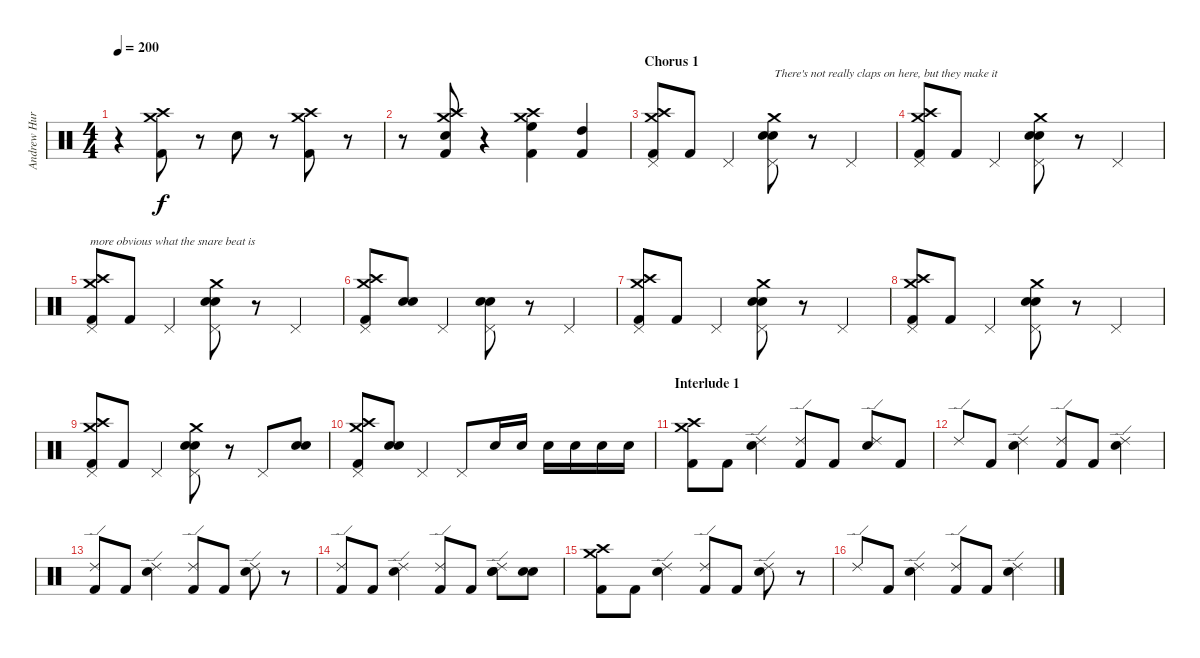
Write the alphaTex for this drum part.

\track ("Andrew Hurley (Drums)" "Andrew Hur") {instrument percussion}
\staff {score}
\articulation defaults
\ts (4 4)
\tempo 200
\clef neutral
\ks c
r.4{dy f} ("Kick (hit) 2" "Crash medium (hit)" "Crash high (hit)").8 r.8 "Electric Snare (hit)".8 r.8 ("Kick (hit) 2" "Crash medium (hit)" "Crash high (hit)").8 r.8 |
r.8 ("Kick (hit) 2" "Electric Snare (hit)" "Crash medium (hit)" "Crash high (hit)").8 r.4 ("Kick (hit) 2" "High Floor Tom (hit)" "Crash medium (hit)" "Crash high (hit)").4 ("Kick (hit) 2" "High Tom (hit)").4 |
\section ("" "Chorus 1")
("Kick (hit) 2" "Pedal Hi-Hat (hit)" "Crash high (hit)" "Crash medium (hit)").8 "Kick (hit) 2".8 "Pedal Hi-Hat (hit)".4 ("Hand Clap (hit)" "Electric Snare (hit)" "Pedal Hi-Hat (hit)" "Crash medium (hit)").8{txt "There's not really claps on here, but they make it"} r.8 "Pedal Hi-Hat (hit)".4 |
("Kick (hit) 2" "Pedal Hi-Hat (hit)" "Crash high (hit)" "Crash medium (hit)").8 "Kick (hit) 2".8 "Pedal Hi-Hat (hit)".4 ("Hand Clap (hit)" "Electric Snare (hit)" "Pedal Hi-Hat (hit)" "Crash medium (hit)").8 r.8 "Pedal Hi-Hat (hit)".4 |
("Kick (hit) 2" "Pedal Hi-Hat (hit)" "Crash high (hit)" "Crash medium (hit)").8{txt "more obvious what the snare beat is"} "Kick (hit) 2".8 "Pedal Hi-Hat (hit)".4 ("Hand Clap (hit)" "Electric Snare (hit)" "Pedal Hi-Hat (hit)" "Crash medium (hit)").8 r.8 "Pedal Hi-Hat (hit)".4 |
("Kick (hit) 2" "Pedal Hi-Hat (hit)" "Crash high (hit)" "Crash medium (hit)").8 ("Hand Clap (hit)" "Electric Snare (hit)").8 "Pedal Hi-Hat (hit)".4 ("Hand Clap (hit)" "Electric Snare (hit)" "Pedal Hi-Hat (hit)").8 r.8 "Pedal Hi-Hat (hit)".4 |
("Kick (hit) 2" "Pedal Hi-Hat (hit)" "Crash high (hit)" "Crash medium (hit)").8 "Kick (hit) 2".8 "Pedal Hi-Hat (hit)".4 ("Hand Clap (hit)" "Electric Snare (hit)" "Pedal Hi-Hat (hit)" "Crash medium (hit)").8 r.8 "Pedal Hi-Hat (hit)".4 |
("Kick (hit) 2" "Pedal Hi-Hat (hit)" "Crash high (hit)" "Crash medium (hit)").8 "Kick (hit) 2".8 "Pedal Hi-Hat (hit)".4 ("Hand Clap (hit)" "Electric Snare (hit)" "Pedal Hi-Hat (hit)" "Crash medium (hit)").8 r.8 "Pedal Hi-Hat (hit)".4 |
("Kick (hit) 2" "Pedal Hi-Hat (hit)" "Crash high (hit)" "Crash medium (hit)").8 "Kick (hit) 2".8 "Pedal Hi-Hat (hit)".4 ("Hand Clap (hit)" "Electric Snare (hit)" "Pedal Hi-Hat (hit)" "Crash medium (hit)").8 r.8 "Pedal Hi-Hat (hit)".8 ("Hand Clap (hit)" "Electric Snare (hit)").8 |
("Kick (hit) 2" "Pedal Hi-Hat (hit)" "Crash high (hit)" "Crash medium (hit)").8 ("Hand Clap (hit)" "Electric Snare (hit)").8 "Pedal Hi-Hat (hit)".4 "Pedal Hi-Hat (hit)".8 "Electric Snare (hit)".16 "Electric Snare (hit)".16 "Electric Snare (hit)".16 "Electric Snare (hit)".16 "Electric Snare (hit)".16 "Electric Snare (hit)".16 |
\section ("" "Interlude 1")
("Kick (hit) 2" "Crash medium (hit)" "Crash high (hit)").8 "Kick (hit) 2".8 ("Electric Snare (hit)" "Ride (edge) 2").4 ("Kick (hit) 2" "Ride (edge) 2").8 "Kick (hit) 2".8 ("Electric Snare (hit)" "Ride (edge) 2").8 "Kick (hit) 2".8 |
"Ride (edge) 2".8 "Kick (hit) 2".8 ("Electric Snare (hit)" "Ride (edge) 2").4 ("Kick (hit) 2" "Ride (edge) 2").8 "Kick (hit) 2".8 ("Electric Snare (hit)" "Ride (edge) 2").4 |
("Kick (hit) 2" "Ride (edge) 2").8 "Kick (hit) 2".8 ("Electric Snare (hit)" "Ride (edge) 2").4 ("Kick (hit) 2" "Ride (edge) 2").8 "Kick (hit) 2".8 ("Electric Snare (hit)" "Ride (edge) 2").8 r.8 |
("Kick (hit) 2" "Ride (edge) 2").8 "Kick (hit) 2".8 ("Electric Snare (hit)" "Ride (edge) 2").4 ("Kick (hit) 2" "Ride (edge) 2").8 "Kick (hit) 2".8 ("Electric Snare (hit)" "Hand Clap (hit)" "Ride (edge) 2").8 ("Electric Snare (hit)" "Hand Clap (hit)").8 |
("Kick (hit) 2" "Crash medium (hit)" "Crash high (hit)").8 "Kick (hit) 2".8 ("Electric Snare (hit)" "Ride (edge) 2").4 ("Kick (hit) 2" "Ride (edge) 2").8 "Kick (hit) 2".8 ("Electric Snare (hit)" "Ride (edge) 2").8 r.8 |
"Ride (edge) 2".8 "Kick (hit) 2".8 ("Electric Snare (hit)" "Ride (edge) 2").4 ("Kick (hit) 2" "Ride (edge) 2").8 "Kick (hit) 2".8 ("Electric Snare (hit)" "Ride (edge) 2").4
